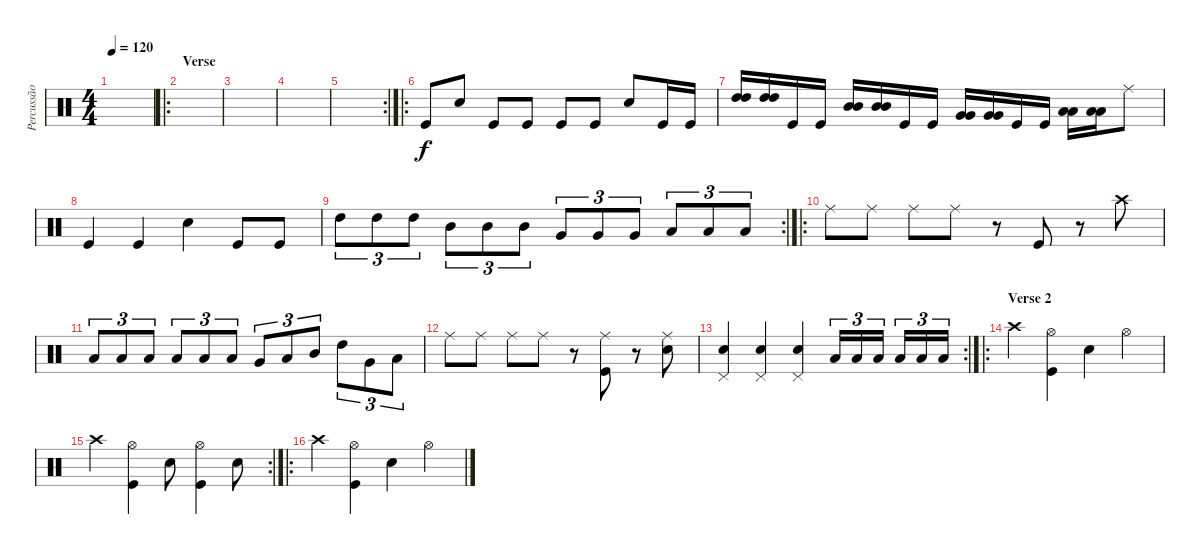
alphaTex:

\track ("Percussão" "Percussão") {instrument percussion}
\staff {score}
\articulation defaults
\ts (4 4)
\tempo 120
\clef neutral
\ks c
|
\ro
\section ("" "Verse")
|
|
|
\rc 2
|
\ro "Kick (hit)".8 "Snare (hit) 2".8 "Kick (hit)".8 "Kick (hit)".8 "Kick (hit)".8 "Kick (hit)".8 "Snare (hit) 2".8 "Kick (hit)".16 "Kick (hit)".16
|
("High Tom (hit)" "High Tom (hit)").16 ("High Tom (hit)" "High Tom (hit)").16 "Kick (hit)".16 "Kick (hit)".16 ("Mid Tom (hit)" "Mid Tom (hit)").16 ("Mid Tom (hit)" "Mid Tom (hit)").16 "Kick (hit)".16 "Kick (hit)".16 ("Very Low Tom (hit)" "Very Low Tom (hit)").16 ("Very Low Tom (hit)" "Very Low Tom (hit)").16 "Kick (hit)".16 "Kick (hit)".16 ("Low Floor Tom (hit)" "Low Floor Tom (hit)").16 ("Low Floor Tom (hit)" "Low Floor Tom (hit)").16 "Ride (middle)".8 |
"Kick (hit)".4 "Kick (hit)".4 "Snare (hit) 2".4 "Kick (hit)".8 "Kick (hit)".8 |
\rc 2 "High Tom (hit)".8{tu (3 2)} "High Tom (hit)".8{tu (3 2)} "High Tom (hit)".8{tu (3 2)} "Mid Tom (hit)".8{tu (3 2)} "Mid Tom (hit)".8{tu (3 2)} "Mid Tom (hit)".8{tu (3 2)} "Very Low Tom (hit)".8{tu (3 2)} "Very Low Tom (hit)".8{tu (3 2)} "Very Low Tom (hit)".8{tu (3 2)} "Low Floor Tom (hit)".8{tu (3 2)} "Low Floor Tom (hit)".8{tu (3 2)} "Low Floor Tom (hit)".8{tu (3 2)}
|
\ro "Ride (middle)".8 "Ride (middle)".8 "Ride (middle)".8 "Ride (middle)".8
r.8 "Kick (hit)".8 r.8 "Crash high (hit)".8 |
"Low Floor Tom (hit)".8{tu (3 2)} "Low Floor Tom (hit)".8{tu (3 2)} "Low Floor Tom (hit)".8{tu (3 2)} "Low Floor Tom (hit)".8{tu (3 2)} "Low Floor Tom (hit)".8{tu (3 2)} "Low Floor Tom (hit)".8{tu (3 2)} "Very Low Tom (hit)".8{tu (3 2)} "Low Tom (hit)".8{tu (3 2)} "Mid Tom (hit)".8{tu (3 2)} "High Tom (hit)".8{tu (3 2)} "Very Low Tom (hit)".8{tu (3 2)} "Low Floor Tom (hit)".8{tu (3 2)} |
"Ride (middle)".8 "Ride (middle)".8 "Ride (middle)".8 "Ride (middle)".8 r.8 ("Ride (middle)" "Kick (hit)").8 r.8 ("Ride (middle)" "Snare (hit) 2").8 |
\rc 2
("Pedal Hi-Hat (hit)" "Snare (hit) 2").4 ("Pedal Hi-Hat (hit)" "Snare (hit) 2").4 ("Pedal Hi-Hat (hit)" "Snare (hit) 2").4 "Low Floor Tom (hit)".16{tu (3 2)} "Low Floor Tom (hit)".16{tu (3 2)} "Low Floor Tom (hit)".16{tu (3 2)} "Low Floor Tom (hit)".16{tu (3 2)} "Low Floor Tom (hit)".16{tu (3 2)} "Low Floor Tom (hit)".16{tu (3 2)} |
\ro
\section ("" "Verse 2")
"Crash high (hit)".4 ("Hi-Hat (open)" "Kick (hit)").4 "Snare (hit) 2".4 "Hi-Hat (open)".4 |
\rc 2 "Crash high (hit)".4
("Hi-Hat (open)" "Kick (hit)").4 "Snare (hit) 2".8 ("Hi-Hat (open)" "Kick (hit)").4 "Snare (hit) 2".8 |
\ro "Crash high (hit)".4
("Hi-Hat (open)" "Kick (hit)").4 "Snare (hit) 2".4 "Hi-Hat (open)".4
